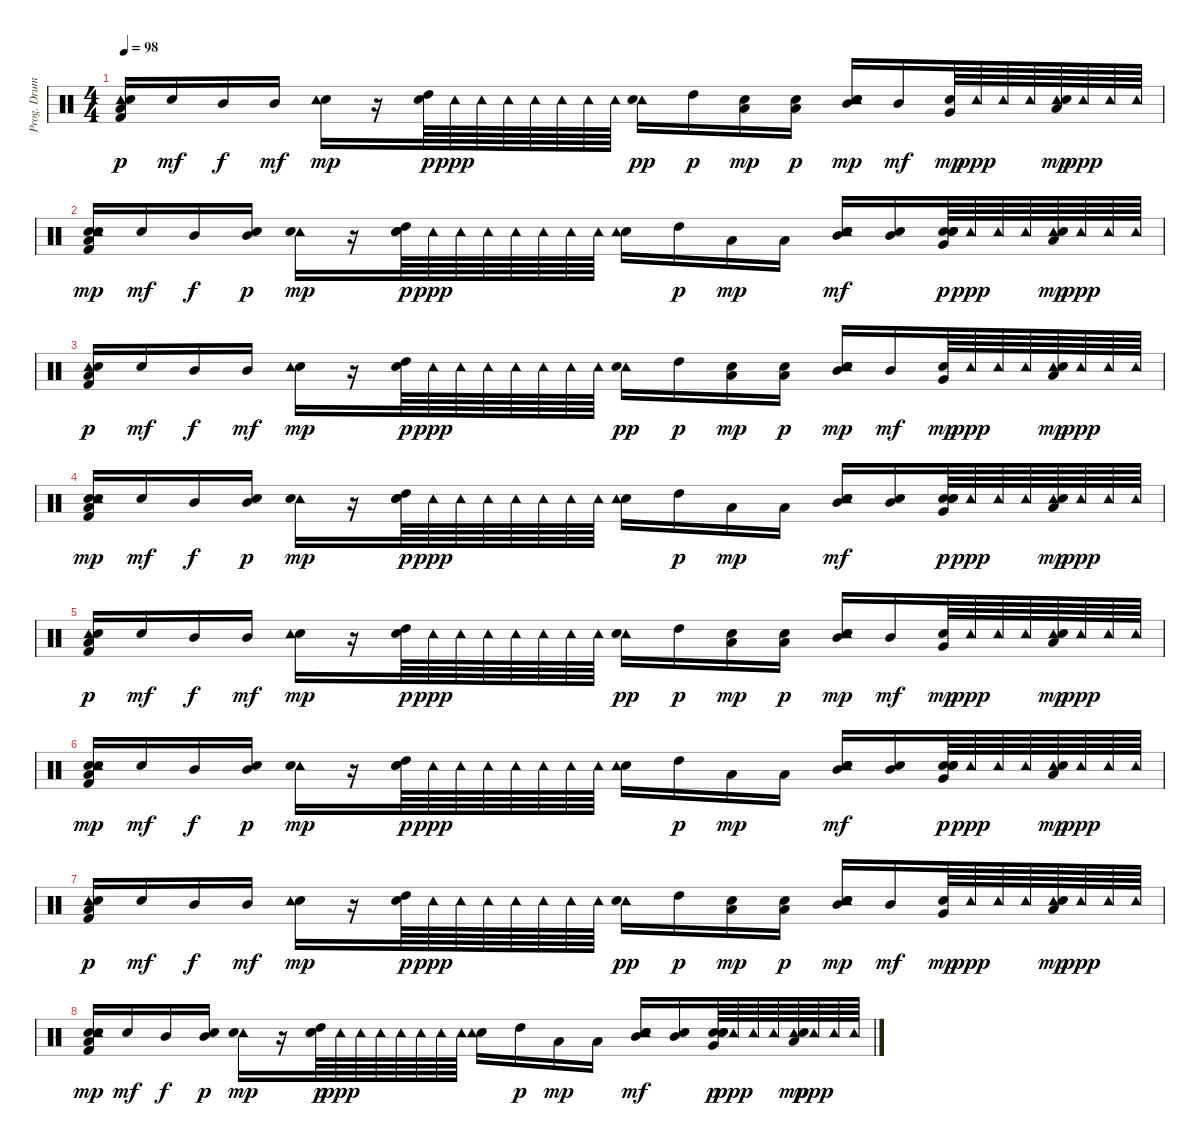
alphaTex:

\track ("Prog. Drums" "Prog. Drum") {instrument percussion}
\staff {score}
\articulation defaults
\ts (4 4)
\tempo 98
\clef neutral
\ks c
("Tambourine (hit)" "Snare (hit)" "Low Floor Tom (hit)" "Kick (hit) 2").16{dy p} "Snare (hit)".16{dy mf} "Mid Tom (hit)".16{dy f} "Mid Tom (hit)".16{dy mf} ("Snare (hit) 2" "Tambourine (hit)").16{dy mp} r.16 ("High Tom (hit)" "Snare (hit)").64{dy p} "Tambourine (hit)".64{dy ppp} "Tambourine (hit)".64 "Tambourine (hit)".64 "Tambourine (hit)".64 "Tambourine (hit)".64 "Tambourine (hit)".64 "Tambourine (hit)".64 ("Tambourine (hit)" "Snare (hit) 2").16{dy pp} "High Tom (hit)".16{dy p} ("Snare (hit)" "Low Tom (hit)").16{dy mp} ("Low Tom (hit)" "Snare (hit)").16{dy p} ("Snare (hit) 2" "Mid Tom (hit)" "Snare (hit)" "Tambourine (hit)").16{dy mp} "Mid Tom (hit)".16{dy mf} ("Snare (hit)" "Very Low Tom (hit)").64{dy mp} "Tambourine (hit)".64{dy ppp} "Tambourine (hit)".64 "Tambourine (hit)".64 ("Tambourine (hit)" "Snare (hit) 2" "Low Tom (hit)").64{dy mp} "Tambourine (hit)".64{dy ppp} "Tambourine (hit)".64 "Tambourine (hit)".64 |
("Snare (hit)" "Snare (hit)" "Tambourine (hit)" "Kick (hit) 2" "Low Floor Tom (hit)").16{dy mp} "Snare (hit)".16{dy mf} "Mid Tom (hit)".16{dy f} ("Mid Tom (hit)" "Snare (hit)").16{dy p} ("Tambourine (hit)" "Snare (hit) 2").16{dy mp} r.16 ("High Tom (hit)" "Snare (hit)" "Snare (hit)").64{dy p} "Tambourine (hit)".64{dy ppp} "Tambourine (hit)".64 "Tambourine (hit)".64 "Tambourine (hit)".64 "Tambourine (hit)".64 "Tambourine (hit)".64 "Tambourine (hit)".64 ("Snare (hit) 2" "Tambourine (hit)").16 "High Tom (hit)".16{dy p} "Low Tom (hit)".16{dy mp} "Low Tom (hit)".16 ("Tambourine (hit)" "Snare (hit)" "Snare (hit) 2" "Mid Tom (hit)").16{dy mf} ("Snare (hit) 2" "Mid Tom (hit)").16 ("Snare (hit) 2" "Very Low Tom (hit)" "Snare (hit)" "Snare (hit)").64{dy p} "Tambourine (hit)".64{dy ppp} "Tambourine (hit)".64 "Tambourine (hit)".64 ("Tambourine (hit)" "Snare (hit) 2" "Low Tom (hit)").64{dy mp} "Tambourine (hit)".64{dy ppp} "Tambourine (hit)".64 "Tambourine (hit)".64 |
("Tambourine (hit)" "Snare (hit)" "Low Floor Tom (hit)" "Kick (hit) 2").16{dy p} "Snare (hit)".16{dy mf} "Mid Tom (hit)".16{dy f} "Mid Tom (hit)".16{dy mf} ("Snare (hit) 2" "Tambourine (hit)").16{dy mp} r.16 ("High Tom (hit)" "Snare (hit)").64{dy p} "Tambourine (hit)".64{dy ppp} "Tambourine (hit)".64 "Tambourine (hit)".64 "Tambourine (hit)".64 "Tambourine (hit)".64 "Tambourine (hit)".64 "Tambourine (hit)".64 ("Tambourine (hit)" "Snare (hit) 2").16{dy pp} "High Tom (hit)".16{dy p} ("Snare (hit)" "Low Tom (hit)").16{dy mp} ("Low Tom (hit)" "Snare (hit)").16{dy p} ("Snare (hit) 2" "Mid Tom (hit)" "Snare (hit)" "Tambourine (hit)").16{dy mp} "Mid Tom (hit)".16{dy mf} ("Snare (hit)" "Very Low Tom (hit)").64{dy mp} "Tambourine (hit)".64{dy ppp} "Tambourine (hit)".64 "Tambourine (hit)".64 ("Tambourine (hit)" "Snare (hit) 2" "Low Tom (hit)").64{dy mp} "Tambourine (hit)".64{dy ppp} "Tambourine (hit)".64 "Tambourine (hit)".64 |
("Snare (hit)" "Snare (hit)" "Tambourine (hit)" "Kick (hit) 2" "Low Floor Tom (hit)").16{dy mp} "Snare (hit)".16{dy mf} "Mid Tom (hit)".16{dy f} ("Mid Tom (hit)" "Snare (hit)").16{dy p} ("Tambourine (hit)" "Snare (hit) 2").16{dy mp} r.16 ("High Tom (hit)" "Snare (hit)" "Snare (hit)").64{dy p} "Tambourine (hit)".64{dy ppp} "Tambourine (hit)".64 "Tambourine (hit)".64 "Tambourine (hit)".64 "Tambourine (hit)".64 "Tambourine (hit)".64 "Tambourine (hit)".64 ("Snare (hit) 2" "Tambourine (hit)").16 "High Tom (hit)".16{dy p} "Low Tom (hit)".16{dy mp} "Low Tom (hit)".16 ("Tambourine (hit)" "Snare (hit)" "Snare (hit) 2" "Mid Tom (hit)").16{dy mf} ("Snare (hit) 2" "Mid Tom (hit)").16 ("Snare (hit) 2" "Very Low Tom (hit)" "Snare (hit)" "Snare (hit)").64{dy p} "Tambourine (hit)".64{dy ppp} "Tambourine (hit)".64 "Tambourine (hit)".64 ("Tambourine (hit)" "Snare (hit) 2" "Low Tom (hit)").64{dy mp} "Tambourine (hit)".64{dy ppp} "Tambourine (hit)".64 "Tambourine (hit)".64 |
("Tambourine (hit)" "Snare (hit)" "Low Floor Tom (hit)" "Kick (hit) 2").16{dy p} "Snare (hit)".16{dy mf} "Mid Tom (hit)".16{dy f} "Mid Tom (hit)".16{dy mf} ("Snare (hit) 2" "Tambourine (hit)").16{dy mp} r.16 ("High Tom (hit)" "Snare (hit)").64{dy p} "Tambourine (hit)".64{dy ppp} "Tambourine (hit)".64 "Tambourine (hit)".64 "Tambourine (hit)".64 "Tambourine (hit)".64 "Tambourine (hit)".64 "Tambourine (hit)".64 ("Tambourine (hit)" "Snare (hit) 2").16{dy pp} "High Tom (hit)".16{dy p} ("Snare (hit)" "Low Tom (hit)").16{dy mp} ("Low Tom (hit)" "Snare (hit)").16{dy p} ("Snare (hit) 2" "Mid Tom (hit)" "Snare (hit)" "Tambourine (hit)").16{dy mp} "Mid Tom (hit)".16{dy mf} ("Snare (hit)" "Very Low Tom (hit)").64{dy mp} "Tambourine (hit)".64{dy ppp} "Tambourine (hit)".64 "Tambourine (hit)".64 ("Tambourine (hit)" "Snare (hit) 2" "Low Tom (hit)").64{dy mp} "Tambourine (hit)".64{dy ppp} "Tambourine (hit)".64 "Tambourine (hit)".64 |
("Snare (hit)" "Snare (hit)" "Tambourine (hit)" "Kick (hit) 2" "Low Floor Tom (hit)").16{dy mp} "Snare (hit)".16{dy mf} "Mid Tom (hit)".16{dy f} ("Mid Tom (hit)" "Snare (hit)").16{dy p} ("Tambourine (hit)" "Snare (hit) 2").16{dy mp} r.16 ("High Tom (hit)" "Snare (hit)" "Snare (hit)").64{dy p} "Tambourine (hit)".64{dy ppp} "Tambourine (hit)".64 "Tambourine (hit)".64 "Tambourine (hit)".64 "Tambourine (hit)".64 "Tambourine (hit)".64 "Tambourine (hit)".64 ("Snare (hit) 2" "Tambourine (hit)").16 "High Tom (hit)".16{dy p} "Low Tom (hit)".16{dy mp} "Low Tom (hit)".16 ("Tambourine (hit)" "Snare (hit)" "Snare (hit) 2" "Mid Tom (hit)").16{dy mf} ("Snare (hit) 2" "Mid Tom (hit)").16 ("Snare (hit) 2" "Very Low Tom (hit)" "Snare (hit)" "Snare (hit)").64{dy p} "Tambourine (hit)".64{dy ppp} "Tambourine (hit)".64 "Tambourine (hit)".64 ("Tambourine (hit)" "Snare (hit) 2" "Low Tom (hit)").64{dy mp} "Tambourine (hit)".64{dy ppp} "Tambourine (hit)".64 "Tambourine (hit)".64 |
("Tambourine (hit)" "Snare (hit)" "Low Floor Tom (hit)" "Kick (hit) 2").16{dy p} "Snare (hit)".16{dy mf} "Mid Tom (hit)".16{dy f} "Mid Tom (hit)".16{dy mf} ("Snare (hit) 2" "Tambourine (hit)").16{dy mp} r.16 ("High Tom (hit)" "Snare (hit)").64{dy p} "Tambourine (hit)".64{dy ppp} "Tambourine (hit)".64 "Tambourine (hit)".64 "Tambourine (hit)".64 "Tambourine (hit)".64 "Tambourine (hit)".64 "Tambourine (hit)".64 ("Tambourine (hit)" "Snare (hit) 2").16{dy pp} "High Tom (hit)".16{dy p} ("Snare (hit)" "Low Tom (hit)").16{dy mp} ("Low Tom (hit)" "Snare (hit)").16{dy p} ("Snare (hit) 2" "Mid Tom (hit)" "Snare (hit)" "Tambourine (hit)").16{dy mp} "Mid Tom (hit)".16{dy mf} ("Snare (hit)" "Very Low Tom (hit)").64{dy mp} "Tambourine (hit)".64{dy ppp} "Tambourine (hit)".64 "Tambourine (hit)".64 ("Tambourine (hit)" "Snare (hit) 2" "Low Tom (hit)").64{dy mp} "Tambourine (hit)".64{dy ppp} "Tambourine (hit)".64 "Tambourine (hit)".64 |
("Snare (hit)" "Snare (hit)" "Tambourine (hit)" "Kick (hit) 2" "Low Floor Tom (hit)").16{dy mp} "Snare (hit)".16{dy mf} "Mid Tom (hit)".16{dy f} ("Mid Tom (hit)" "Snare (hit)").16{dy p} ("Tambourine (hit)" "Snare (hit) 2").16{dy mp} r.16 ("High Tom (hit)" "Snare (hit)" "Snare (hit)").64{dy p} "Tambourine (hit)".64{dy ppp} "Tambourine (hit)".64 "Tambourine (hit)".64 "Tambourine (hit)".64 "Tambourine (hit)".64 "Tambourine (hit)".64 "Tambourine (hit)".64 ("Snare (hit) 2" "Tambourine (hit)").16 "High Tom (hit)".16{dy p} "Low Tom (hit)".16{dy mp} "Low Tom (hit)".16 ("Tambourine (hit)" "Snare (hit)" "Snare (hit) 2" "Mid Tom (hit)").16{dy mf} ("Snare (hit) 2" "Mid Tom (hit)").16 ("Snare (hit) 2" "Very Low Tom (hit)" "Snare (hit)" "Snare (hit)").64{dy p} "Tambourine (hit)".64{dy ppp} "Tambourine (hit)".64 "Tambourine (hit)".64 ("Tambourine (hit)" "Snare (hit) 2" "Low Tom (hit)").64{dy mp} "Tambourine (hit)".64{dy ppp} "Tambourine (hit)".64 "Tambourine (hit)".64
